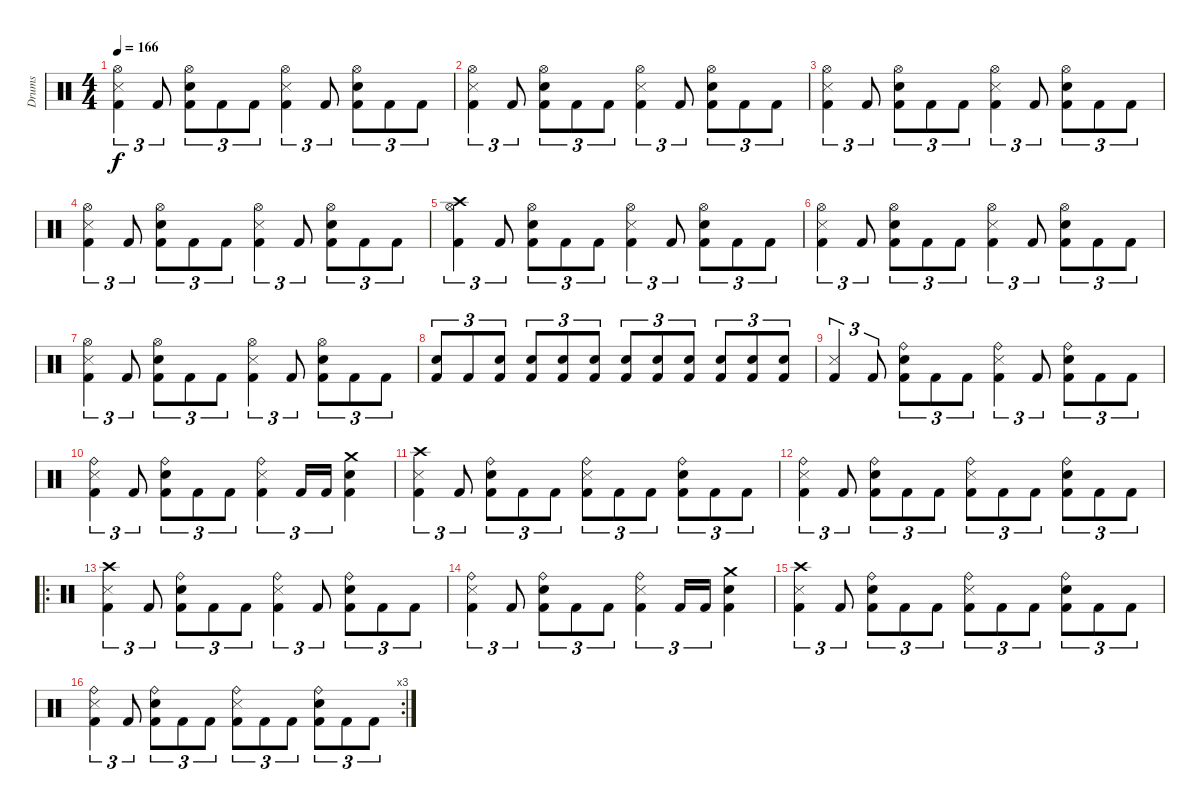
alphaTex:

\track ("Drums" "Drums") {instrument percussion}
\staff {score}
\articulation defaults
\ts (4 4)
\tempo 166
\clef neutral
\ks c
("Hi-Hat (open)" "Snare (side stick) 3" "Kick (hit) 2").4{tu (3 2) dy f} "Kick (hit) 2".8{tu (3 2)} ("Hi-Hat (open)" "Electric Snare (hit)" "Kick (hit) 2").8{tu (3 2)} "Kick (hit) 2".8{tu (3 2)} "Kick (hit) 2".8{tu (3 2)} ("Hi-Hat (open)" "Snare (side stick) 3" "Kick (hit) 2").4{tu (3 2)} "Kick (hit) 2".8{tu (3 2)} ("Hi-Hat (open)" "Electric Snare (hit)" "Kick (hit) 2").8{tu (3 2)} "Kick (hit) 2".8{tu (3 2)} "Kick (hit) 2".8{tu (3 2)} |
("Hi-Hat (open)" "Snare (side stick) 3" "Kick (hit) 2").4{tu (3 2)} "Kick (hit) 2".8{tu (3 2)} ("Hi-Hat (open)" "Electric Snare (hit)" "Kick (hit) 2").8{tu (3 2)} "Kick (hit) 2".8{tu (3 2)} "Kick (hit) 2".8{tu (3 2)} ("Hi-Hat (open)" "Snare (side stick) 3" "Kick (hit) 2").4{tu (3 2)} "Kick (hit) 2".8{tu (3 2)} ("Hi-Hat (open)" "Electric Snare (hit)" "Kick (hit) 2").8{tu (3 2)} "Kick (hit) 2".8{tu (3 2)} "Kick (hit) 2".8{tu (3 2)} |
("Hi-Hat (open)" "Snare (side stick) 3" "Kick (hit) 2").4{tu (3 2)} "Kick (hit) 2".8{tu (3 2)} ("Hi-Hat (open)" "Electric Snare (hit)" "Kick (hit) 2").8{tu (3 2)} "Kick (hit) 2".8{tu (3 2)} "Kick (hit) 2".8{tu (3 2)} ("Hi-Hat (open)" "Snare (side stick) 3" "Kick (hit) 2").4{tu (3 2)} "Kick (hit) 2".8{tu (3 2)} ("Hi-Hat (open)" "Electric Snare (hit)" "Kick (hit) 2").8{tu (3 2)} "Kick (hit) 2".8{tu (3 2)} "Kick (hit) 2".8{tu (3 2)} |
("Hi-Hat (open)" "Snare (side stick) 3" "Kick (hit) 2").4{tu (3 2)} "Kick (hit) 2".8{tu (3 2)} ("Hi-Hat (open)" "Electric Snare (hit)" "Kick (hit) 2").8{tu (3 2)} "Kick (hit) 2".8{tu (3 2)} "Kick (hit) 2".8{tu (3 2)} ("Hi-Hat (open)" "Snare (side stick) 3" "Kick (hit) 2").4{tu (3 2)} "Kick (hit) 2".8{tu (3 2)} ("Hi-Hat (open)" "Electric Snare (hit)" "Kick (hit) 2").8{tu (3 2)} "Kick (hit) 2".8{tu (3 2)} "Kick (hit) 2".8{tu (3 2)} |
("Crash high (hit)" "Hi-Hat (open)" "Kick (hit) 2").4{tu (3 2)} "Kick (hit) 2".8{tu (3 2)} ("Hi-Hat (open)" "Electric Snare (hit)" "Kick (hit) 2").8{tu (3 2)} "Kick (hit) 2".8{tu (3 2)} "Kick (hit) 2".8{tu (3 2)} ("Hi-Hat (open)" "Snare (side stick) 3" "Kick (hit) 2").4{tu (3 2)} "Kick (hit) 2".8{tu (3 2)} ("Hi-Hat (open)" "Electric Snare (hit)" "Kick (hit) 2").8{tu (3 2)} "Kick (hit) 2".8{tu (3 2)} "Kick (hit) 2".8{tu (3 2)} |
("Hi-Hat (open)" "Snare (side stick) 3" "Kick (hit) 2").4{tu (3 2)} "Kick (hit) 2".8{tu (3 2)} ("Hi-Hat (open)" "Electric Snare (hit)" "Kick (hit) 2").8{tu (3 2)} "Kick (hit) 2".8{tu (3 2)} "Kick (hit) 2".8{tu (3 2)} ("Hi-Hat (open)" "Snare (side stick) 3" "Kick (hit) 2").4{tu (3 2)} "Kick (hit) 2".8{tu (3 2)} ("Hi-Hat (open)" "Electric Snare (hit)" "Kick (hit) 2").8{tu (3 2)} "Kick (hit) 2".8{tu (3 2)} "Kick (hit) 2".8{tu (3 2)} |
("Hi-Hat (open)" "Snare (side stick) 3" "Kick (hit) 2").4{tu (3 2)} "Kick (hit) 2".8{tu (3 2)} ("Hi-Hat (open)" "Electric Snare (hit)" "Kick (hit) 2").8{tu (3 2)} "Kick (hit) 2".8{tu (3 2)} "Kick (hit) 2".8{tu (3 2)} ("Hi-Hat (open)" "Snare (side stick) 3" "Kick (hit) 2").4{tu (3 2)} "Kick (hit) 2".8{tu (3 2)} ("Hi-Hat (open)" "Electric Snare (hit)" "Kick (hit) 2").8{tu (3 2)} "Kick (hit) 2".8{tu (3 2)} "Kick (hit) 2".8{tu (3 2)} |
("Electric Snare (hit)" "Kick (hit) 2").8{tu (3 2)} "Kick (hit) 2".8{tu (3 2)} ("Electric Snare (hit)" "Kick (hit) 2").8{tu (3 2)} ("Electric Snare (hit)" "Kick (hit) 2").8{tu (3 2)} ("Electric Snare (hit)" "Kick (hit) 2").8{tu (3 2)} ("Electric Snare (hit)" "Kick (hit) 2").8{tu (3 2)} ("Electric Snare (hit)" "Kick (hit) 2").8{tu (3 2)} ("Electric Snare (hit)" "Kick (hit) 2").8{tu (3 2)} ("Electric Snare (hit)" "Kick (hit) 2").8{tu (3 2)} ("Electric Snare (hit)" "Kick (hit) 2").8{tu (3 2)} ("Electric Snare (hit)" "Kick (hit) 2").8{tu (3 2)} ("Electric Snare (hit)" "Kick (hit) 2").8{tu (3 2)} |
("Snare (side stick) 3" "Kick (hit) 2").4{tu (3 2)} "Kick (hit) 2".8{tu (3 2)} ("Ride (bell)" "Electric Snare (hit)" "Kick (hit) 2").8{tu (3 2)} "Kick (hit) 2".8{tu (3 2)} "Kick (hit) 2".8{tu (3 2)} ("Ride (bell)" "Snare (side stick) 3" "Kick (hit) 2").4{tu (3 2)} "Kick (hit) 2".8{tu (3 2)} ("Ride (bell)" "Electric Snare (hit)" "Kick (hit) 2").8{tu (3 2)} "Kick (hit) 2".8{tu (3 2)} "Kick (hit) 2".8{tu (3 2)} |
("Ride (bell)" "Snare (side stick) 3" "Kick (hit) 2").4{tu (3 2)} "Kick (hit) 2".8{tu (3 2)} ("Ride (bell)" "Electric Snare (hit)" "Kick (hit) 2").8{tu (3 2)} "Kick (hit) 2".8{tu (3 2)} "Kick (hit) 2".8{tu (3 2)} ("Ride (bell)" "Snare (side stick) 3" "Kick (hit) 2").4{tu (3 2)} "Kick (hit) 2".16{tu (3 2)} "Kick (hit) 2".16{tu (3 2)} ("Crash medium (hit)" "Electric Snare (hit)" "Kick (hit) 2").4 |
("Crash high (hit)" "Snare (side stick) 3" "Kick (hit) 2").4{tu (3 2)} "Kick (hit) 2".8{tu (3 2)} ("Ride (bell)" "Electric Snare (hit)" "Kick (hit) 2").8{tu (3 2)} "Kick (hit) 2".8{tu (3 2)} "Kick (hit) 2".8{tu (3 2)} ("Ride (bell)" "Snare (side stick) 3" "Kick (hit) 2").8{tu (3 2)} "Kick (hit) 2".8{tu (3 2)} "Kick (hit) 2".8{tu (3 2)} ("Ride (bell)" "Electric Snare (hit)" "Kick (hit) 2").8{tu (3 2)} "Kick (hit) 2".8{tu (3 2)} "Kick (hit) 2".8{tu (3 2)} |
("Ride (bell)" "Snare (side stick) 3" "Kick (hit) 2").4{tu (3 2)} "Kick (hit) 2".8{tu (3 2)} ("Ride (bell)" "Electric Snare (hit)" "Kick (hit) 2").8{tu (3 2)} "Kick (hit) 2".8{tu (3 2)} "Kick (hit) 2".8{tu (3 2)} ("Ride (bell)" "Snare (side stick) 3" "Kick (hit) 2").8{tu (3 2)} "Kick (hit) 2".8{tu (3 2)} "Kick (hit) 2".8{tu (3 2)} ("Ride (bell)" "Electric Snare (hit)" "Kick (hit) 2").8{tu (3 2)} "Kick (hit) 2".8{tu (3 2)} "Kick (hit) 2".8{tu (3 2)} |
\ro
("Crash high (hit)" "Snare (side stick) 3" "Kick (hit) 2").4{tu (3 2)} "Kick (hit) 2".8{tu (3 2)} ("Ride (bell)" "Electric Snare (hit)" "Kick (hit) 2").8{tu (3 2)} "Kick (hit) 2".8{tu (3 2)} "Kick (hit) 2".8{tu (3 2)} ("Ride (bell)" "Snare (side stick) 3" "Kick (hit) 2").4{tu (3 2)} "Kick (hit) 2".8{tu (3 2)} ("Ride (bell)" "Electric Snare (hit)" "Kick (hit) 2").8{tu (3 2)} "Kick (hit) 2".8{tu (3 2)} "Kick (hit) 2".8{tu (3 2)} |
("Ride (bell)" "Snare (side stick) 3" "Kick (hit) 2").4{tu (3 2)} "Kick (hit) 2".8{tu (3 2)} ("Ride (bell)" "Electric Snare (hit)" "Kick (hit) 2").8{tu (3 2)} "Kick (hit) 2".8{tu (3 2)} "Kick (hit) 2".8{tu (3 2)} ("Ride (bell)" "Snare (side stick) 3" "Kick (hit) 2").4{tu (3 2)} "Kick (hit) 2".16{tu (3 2)} "Kick (hit) 2".16{tu (3 2)} ("Crash medium (hit)" "Electric Snare (hit)" "Kick (hit) 2").4 |
("Crash high (hit)" "Snare (side stick) 3" "Kick (hit) 2").4{tu (3 2)} "Kick (hit) 2".8{tu (3 2)} ("Ride (bell)" "Electric Snare (hit)" "Kick (hit) 2").8{tu (3 2)} "Kick (hit) 2".8{tu (3 2)} "Kick (hit) 2".8{tu (3 2)} ("Ride (bell)" "Snare (side stick) 3" "Kick (hit) 2").8{tu (3 2)} "Kick (hit) 2".8{tu (3 2)} "Kick (hit) 2".8{tu (3 2)} ("Ride (bell)" "Electric Snare (hit)" "Kick (hit) 2").8{tu (3 2)} "Kick (hit) 2".8{tu (3 2)} "Kick (hit) 2".8{tu (3 2)} |
\rc 3
("Ride (bell)" "Snare (side stick) 3" "Kick (hit) 2").4{tu (3 2)} "Kick (hit) 2".8{tu (3 2)} ("Ride (bell)" "Electric Snare (hit)" "Kick (hit) 2").8{tu (3 2)} "Kick (hit) 2".8{tu (3 2)} "Kick (hit) 2".8{tu (3 2)} ("Ride (bell)" "Snare (side stick) 3" "Kick (hit) 2").8{tu (3 2)} "Kick (hit) 2".8{tu (3 2)} "Kick (hit) 2".8{tu (3 2)} ("Ride (bell)" "Electric Snare (hit)" "Kick (hit) 2").8{tu (3 2)} "Kick (hit) 2".8{tu (3 2)} "Kick (hit) 2".8{tu (3 2)}
